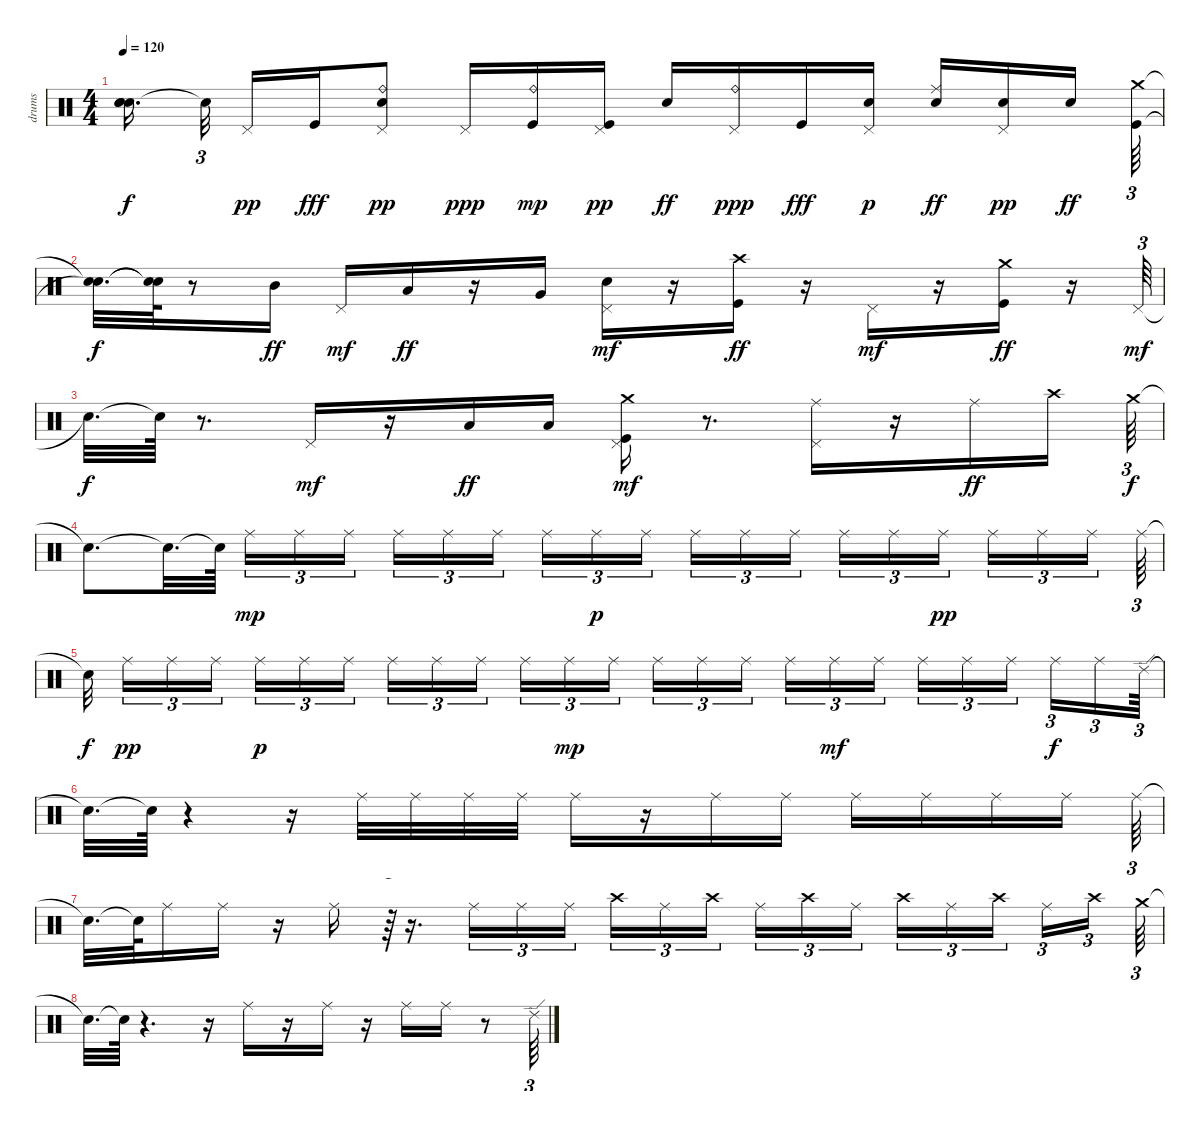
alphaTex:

\track ("drums" "drums") {instrument percussion}
\staff {score}
\articulation defaults
\ts (4 4)
\tempo 120
\clef neutral
\ks c
("Snare (hit)"{t} "Snare (hit)"{t} "Snare (hit)"{t}).16{d dy f beam splitsecondary} "Snare (hit)"{t}.32{tu (3 2) beam splitsecondary} "Pedal Hi-Hat (hit)".16{dy pp} "Kick (hit)".16{dy fff} ("Snare (hit) 2" "Ride (bell)" "Pedal Hi-Hat (hit)").8{dy pp} "Pedal Hi-Hat (hit)".16{dy ppp} ("Kick (hit)" "Ride (bell)").16{dy mp} ("Kick (hit)" "Pedal Hi-Hat (hit)").16{dy pp} "Snare (hit) 2".16{dy ff} ("Ride (bell)" "Pedal Hi-Hat (hit)").16{dy ppp} "Kick (hit)".16{dy fff} ("Snare (hit) 2" "Pedal Hi-Hat (hit)").16{dy p} ("Snare (hit) 2" "Ride (middle)").16{dy ff} ("Snare (hit) 2" "Pedal Hi-Hat (hit)").16{dy pp} "Snare (hit) 2".16{dy ff beam splitsecondary} ("Kick (hit)" "Crash medium (hit)").64{tu (3 2)} |
("Snare (hit)"{t} "Snare (hit)"{t}).32{d dy f} ("Snare (hit)"{t} "Snare (hit)"{t}).64 r.8 "Mid Tom (hit)".16{dy ff} "Pedal Hi-Hat (hit)".16{dy mf} "Low Tom (hit)".16{dy ff} r.16 "Very Low Tom (hit)".16 ("Snare (hit) 2" "Pedal Hi-Hat (hit)").16{dy mf} r.16 ("Kick (hit)" "Crash high (hit)").16{dy ff} r.16 "Pedal Hi-Hat (hit)".16{dy mf} r.16 ("Kick (hit)" "Crash medium (hit)").16{dy ff} r.16 "Pedal Hi-Hat (hit)".64{tu (3 2) dy mf} |
"Snare (hit)"{t}.32{d dy f} "Snare (hit)"{t}.64 r.8{d} "Pedal Hi-Hat (hit)".16{dy mf} r.16 "Low Tom (hit)".16{dy ff} "Low Tom (hit)".16 ("Kick (hit)" "Crash medium (hit)" "Pedal Hi-Hat (hit)").16{dy mf} r.8{d} ("Ride (middle)" "Pedal Hi-Hat (hit)").16 r.16 "Ride (middle)".16{dy ff} "Crash high (hit)".16 "Crash medium (hit)".64{tu (3 2) dy f} |
"Snare (hit)"{t}.8{d} "Snare (hit)"{t}.32{d} "Snare (hit)"{t}.64 "Ride (middle)".16{tu (3 2) dy mp} "Ride (middle)".16{tu (3 2)} "Ride (middle)".16{tu (3 2) beam splitsecondary} "Ride (middle)".16{tu (3 2)} "Ride (middle)".16{tu (3 2)} "Ride (middle)".16{tu (3 2)} "Ride (middle)".16{tu (3 2)} "Ride (middle)".16{tu (3 2) dy p} "Ride (middle)".16{tu (3 2) beam splitsecondary} "Ride (middle)".16{tu (3 2)} "Ride (middle)".16{tu (3 2)} "Ride (middle)".16{tu (3 2)} "Ride (middle)".16{tu (3 2)} "Ride (middle)".16{tu (3 2)} "Ride (middle)".16{tu (3 2) dy pp beam splitsecondary} "Ride (middle)".16{tu (3 2)} "Ride (middle)".16{tu (3 2)} "Ride (middle)".16{tu (3 2)} "Ride (middle)".64{tu (3 2)} |
"Snare (hit)"{t}.32{dy f beam splitsecondary} "Ride (middle)".16{tu (3 2) dy pp} "Ride (middle)".16{tu (3 2)} "Ride (middle)".16{tu (3 2) beam splitsecondary} "Ride (middle)".16{tu (3 2) dy p} "Ride (middle)".16{tu (3 2)} "Ride (middle)".16{tu (3 2)} "Ride (middle)".16{tu (3 2)} "Ride (middle)".16{tu (3 2)} "Ride (middle)".16{tu (3 2) beam splitsecondary} "Ride (middle)".16{tu (3 2)} "Ride (middle)".16{tu (3 2) dy mp} "Ride (middle)".16{tu (3 2)} "Ride (middle)".16{tu (3 2)} "Ride (middle)".16{tu (3 2)} "Ride (middle)".16{tu (3 2) beam splitsecondary} "Ride (middle)".16{tu (3 2)} "Ride (middle)".16{tu (3 2) dy mf} "Ride (middle)".16{tu (3 2)} "Ride (middle)".16{tu (3 2)} "Ride (middle)".16{tu (3 2)} "Ride (middle)".16{tu (3 2) beam splitsecondary} "Ride (middle)".16{tu (3 2) dy f} "Ride (middle)".16{tu (3 2)} "Ride (edge) 2".64{tu (3 2)} |
"Snare (hit)"{t}.32{d} "Snare (hit)"{t}.64 r.4 r.16 "Ride (middle)".32 "Ride (middle)".32 "Ride (middle)".32 "Ride (middle)".32 "Ride (middle)".16 r.16 "Ride (middle)".16 "Ride (middle)".16 "Ride (middle)".16 "Ride (middle)".16 "Ride (middle)".16 "Ride (middle)".16 "Ride (middle)".64{tu (3 2)} |
"Snare (hit)"{t}.32{d} "Snare (hit)"{t}.64 "Ride (middle)".16 "Ride (middle)".16 r.16 "Ride (middle)".16 r.64{tu (3 2)} r.16{d} "Ride (middle)".16{tu (3 2)} "Ride (middle)".16{tu (3 2)} "Ride (middle)".16{tu (3 2) beam splitsecondary} "Crash high (hit)".16{tu (3 2)} "Ride (middle)".16{tu (3 2)} "Crash high (hit)".16{tu (3 2) beam splitsecondary} "Ride (middle)".16{tu (3 2)} "Crash high (hit)".16{tu (3 2)} "Ride (middle)".16{tu (3 2) beam splitsecondary} "Crash high (hit)".16{tu (3 2)} "Ride (middle)".16{tu (3 2)} "Crash high (hit)".16{tu (3 2) beam splitsecondary} "Ride (middle)".16{tu (3 2)} "Crash high (hit)".16{tu (3 2)} "Crash medium (hit)".64{tu (3 2)} |
"Snare (hit)"{t}.32{d} "Snare (hit)"{t}.64 r.4{d} r.16 "Ride (middle)".16 r.16 "Ride (middle)".16 r.16 "Ride (middle)".16 "Ride (middle)".16 r.8 "Ride (edge) 2".64{tu (3 2)}
